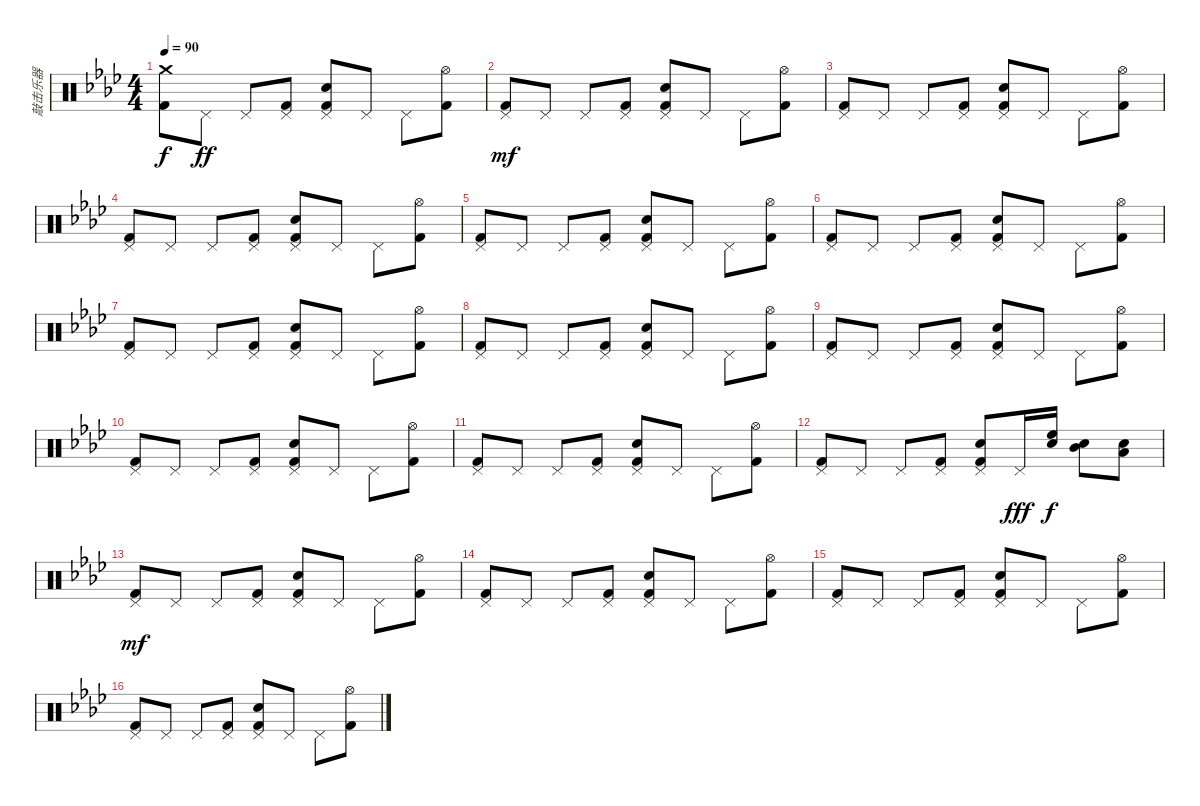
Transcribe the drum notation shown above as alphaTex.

\track ("敲击乐器" "敲击乐器") {instrument percussion}
\staff {score}
\articulation defaults
\ts (4 4)
\tempo 90
\clef neutral
\ks ab
("Crash medium (hit)" "Kick (hit) 2").8{dy f} "Pedal Hi-Hat (hit)".8{dy ff} "Pedal Hi-Hat (hit)".8 ("Pedal Hi-Hat (hit)" "Kick (hit) 2").8 ("Pedal Hi-Hat (hit)" "Snare (hit) 2" "Kick (hit) 2").8 "Pedal Hi-Hat (hit)".8 "Pedal Hi-Hat (hit)".8 ("Hi-Hat (open)" "Kick (hit) 2").8 |
("Pedal Hi-Hat (hit)" "Kick (hit) 2").8{dy mf} "Pedal Hi-Hat (hit)".8 "Pedal Hi-Hat (hit)".8 ("Pedal Hi-Hat (hit)" "Kick (hit) 2").8 ("Pedal Hi-Hat (hit)" "Snare (hit) 2" "Kick (hit) 2").8 "Pedal Hi-Hat (hit)".8 "Pedal Hi-Hat (hit)".8 ("Hi-Hat (open)" "Kick (hit) 2").8 |
("Pedal Hi-Hat (hit)" "Kick (hit) 2").8 "Pedal Hi-Hat (hit)".8 "Pedal Hi-Hat (hit)".8 ("Pedal Hi-Hat (hit)" "Kick (hit) 2").8 ("Pedal Hi-Hat (hit)" "Snare (hit) 2" "Kick (hit) 2").8 "Pedal Hi-Hat (hit)".8 "Pedal Hi-Hat (hit)".8 ("Hi-Hat (open)" "Kick (hit) 2").8 |
("Pedal Hi-Hat (hit)" "Kick (hit) 2").8 "Pedal Hi-Hat (hit)".8 "Pedal Hi-Hat (hit)".8 ("Pedal Hi-Hat (hit)" "Kick (hit) 2").8 ("Pedal Hi-Hat (hit)" "Snare (hit) 2" "Kick (hit) 2").8 "Pedal Hi-Hat (hit)".8 "Pedal Hi-Hat (hit)".8 ("Hi-Hat (open)" "Kick (hit) 2").8 |
("Pedal Hi-Hat (hit)" "Kick (hit) 2").8 "Pedal Hi-Hat (hit)".8 "Pedal Hi-Hat (hit)".8 ("Pedal Hi-Hat (hit)" "Kick (hit) 2").8 ("Pedal Hi-Hat (hit)" "Snare (hit) 2" "Kick (hit) 2").8 "Pedal Hi-Hat (hit)".8 "Pedal Hi-Hat (hit)".8 ("Hi-Hat (open)" "Kick (hit) 2").8 |
("Pedal Hi-Hat (hit)" "Kick (hit) 2").8 "Pedal Hi-Hat (hit)".8 "Pedal Hi-Hat (hit)".8 ("Pedal Hi-Hat (hit)" "Kick (hit) 2").8 ("Pedal Hi-Hat (hit)" "Snare (hit) 2" "Kick (hit) 2").8 "Pedal Hi-Hat (hit)".8 "Pedal Hi-Hat (hit)".8 ("Hi-Hat (open)" "Kick (hit) 2").8 |
("Pedal Hi-Hat (hit)" "Kick (hit) 2").8 "Pedal Hi-Hat (hit)".8 "Pedal Hi-Hat (hit)".8 ("Pedal Hi-Hat (hit)" "Kick (hit) 2").8 ("Pedal Hi-Hat (hit)" "Snare (hit) 2" "Kick (hit) 2").8 "Pedal Hi-Hat (hit)".8 "Pedal Hi-Hat (hit)".8 ("Hi-Hat (open)" "Kick (hit) 2").8 |
("Pedal Hi-Hat (hit)" "Kick (hit) 2").8 "Pedal Hi-Hat (hit)".8 "Pedal Hi-Hat (hit)".8 ("Pedal Hi-Hat (hit)" "Kick (hit) 2").8 ("Pedal Hi-Hat (hit)" "Snare (hit) 2" "Kick (hit) 2").8 "Pedal Hi-Hat (hit)".8 "Pedal Hi-Hat (hit)".8 ("Hi-Hat (open)" "Kick (hit) 2").8 |
("Pedal Hi-Hat (hit)" "Kick (hit) 2").8 "Pedal Hi-Hat (hit)".8 "Pedal Hi-Hat (hit)".8 ("Pedal Hi-Hat (hit)" "Kick (hit) 2").8 ("Pedal Hi-Hat (hit)" "Snare (hit) 2" "Kick (hit) 2").8 "Pedal Hi-Hat (hit)".8 "Pedal Hi-Hat (hit)".8 ("Hi-Hat (open)" "Kick (hit) 2").8 |
("Pedal Hi-Hat (hit)" "Kick (hit) 2").8 "Pedal Hi-Hat (hit)".8 "Pedal Hi-Hat (hit)".8 ("Pedal Hi-Hat (hit)" "Kick (hit) 2").8 ("Pedal Hi-Hat (hit)" "Snare (hit) 2" "Kick (hit) 2").8 "Pedal Hi-Hat (hit)".8 "Pedal Hi-Hat (hit)".8 ("Hi-Hat (open)" "Kick (hit) 2").8 |
("Pedal Hi-Hat (hit)" "Kick (hit) 2").8 "Pedal Hi-Hat (hit)".8 "Pedal Hi-Hat (hit)".8 ("Pedal Hi-Hat (hit)" "Kick (hit) 2").8 ("Pedal Hi-Hat (hit)" "Snare (hit) 2" "Kick (hit) 2").8 "Pedal Hi-Hat (hit)".8 "Pedal Hi-Hat (hit)".8 ("Hi-Hat (open)" "Kick (hit) 2").8 |
("Pedal Hi-Hat (hit)" "Kick (hit) 2").8 "Pedal Hi-Hat (hit)".8 "Pedal Hi-Hat (hit)".8 ("Pedal Hi-Hat (hit)" "Kick (hit) 2").8 ("Pedal Hi-Hat (hit)" "Snare (hit) 2" "Kick (hit) 2").8 "Pedal Hi-Hat (hit)".16{dy fff} ("High Floor Tom (hit)" "Electric Snare (hit)").16{dy f} ("Mid Tom (hit)" "Snare (hit) 2").8 ("Low Tom (hit)" "Snare (hit) 2").8 |
("Pedal Hi-Hat (hit)" "Kick (hit) 2").8{dy mf} "Pedal Hi-Hat (hit)".8 "Pedal Hi-Hat (hit)".8 ("Pedal Hi-Hat (hit)" "Kick (hit) 2").8 ("Pedal Hi-Hat (hit)" "Snare (hit) 2" "Kick (hit) 2").8 "Pedal Hi-Hat (hit)".8 "Pedal Hi-Hat (hit)".8 ("Hi-Hat (open)" "Kick (hit) 2").8 |
("Pedal Hi-Hat (hit)" "Kick (hit) 2").8 "Pedal Hi-Hat (hit)".8 "Pedal Hi-Hat (hit)".8 ("Pedal Hi-Hat (hit)" "Kick (hit) 2").8 ("Pedal Hi-Hat (hit)" "Snare (hit) 2" "Kick (hit) 2").8 "Pedal Hi-Hat (hit)".8 "Pedal Hi-Hat (hit)".8 ("Hi-Hat (open)" "Kick (hit) 2").8 |
("Pedal Hi-Hat (hit)" "Kick (hit) 2").8 "Pedal Hi-Hat (hit)".8 "Pedal Hi-Hat (hit)".8 ("Pedal Hi-Hat (hit)" "Kick (hit) 2").8 ("Pedal Hi-Hat (hit)" "Snare (hit) 2" "Kick (hit) 2").8 "Pedal Hi-Hat (hit)".8 "Pedal Hi-Hat (hit)".8 ("Hi-Hat (open)" "Kick (hit) 2").8 |
("Pedal Hi-Hat (hit)" "Kick (hit) 2").8 "Pedal Hi-Hat (hit)".8 "Pedal Hi-Hat (hit)".8 ("Pedal Hi-Hat (hit)" "Kick (hit) 2").8 ("Pedal Hi-Hat (hit)" "Snare (hit) 2" "Kick (hit) 2").8 "Pedal Hi-Hat (hit)".8 "Pedal Hi-Hat (hit)".8 ("Hi-Hat (open)" "Kick (hit) 2").8
